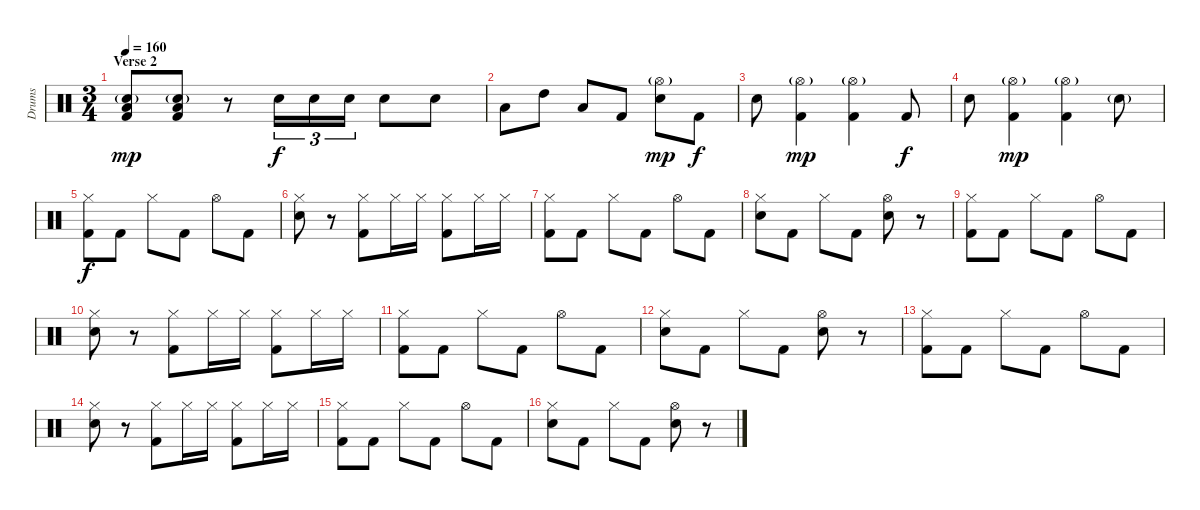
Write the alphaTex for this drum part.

\track ("Drums" "Drums") {instrument percussion}
\staff {score}
\articulation defaults
\ts (3 4)
\section ("" "Verse 2")
\tempo 160
\clef neutral
\ks c
("Low Floor Tom (hit)" "Snare (hit) 2"{g} "Kick (hit) 2").8{dy mp} ("Low Floor Tom (hit)" "Snare (hit) 2"{g} "Kick (hit) 2").8 r.8 "Snare (hit) 2".16{tu (3 2) dy f} "Snare (hit) 2".16{tu (3 2)} "Snare (hit) 2".16{tu (3 2)} "Snare (hit) 2".8 "Snare (hit) 2".8 |
"Low Tom (hit)".8 "High Tom (hit)".8 "Low Floor Tom (hit)".8 "Kick (hit) 2".8 ("Hi-Hat (open)"{g} "Snare (hit) 2").8{dy mp} "Kick (hit) 2".8{dy f} |
"Snare (hit) 2".8 ("Hi-Hat (open)"{g} "Kick (hit) 2").4{dy mp} ("Hi-Hat (open)"{g} "Kick (hit) 2").4 "Kick (hit) 2".8{dy f} |
"Snare (hit) 2".8 ("Hi-Hat (open)"{g} "Kick (hit) 2").4{dy mp} ("Hi-Hat (open)"{g} "Kick (hit) 2").4 "Snare (hit) 2"{g}.8 |
("Hi-Hat (closed)" "Kick (hit) 2").8{dy f} "Kick (hit) 2".8 "Hi-Hat (closed)".8 "Kick (hit) 2".8 "Hi-Hat (open)".8 "Kick (hit) 2".8 |
("Hi-Hat (closed)" "Snare (hit) 2").8 r.8 ("Hi-Hat (closed)" "Kick (hit) 2").8 "Hi-Hat (closed)".16 "Hi-Hat (closed)".16 ("Hi-Hat (closed)" "Kick (hit) 2").8 "Hi-Hat (closed)".16 "Hi-Hat (closed)".16 |
("Hi-Hat (closed)" "Kick (hit) 2").8 "Kick (hit) 2".8 "Hi-Hat (closed)".8 "Kick (hit) 2".8 "Hi-Hat (open)".8 "Kick (hit) 2".8 |
("Hi-Hat (closed)" "Snare (hit) 2").8 "Kick (hit) 2".8 "Hi-Hat (closed)".8 "Kick (hit) 2".8 ("Hi-Hat (open)" "Snare (hit) 2").8 r.8 |
("Hi-Hat (closed)" "Kick (hit) 2").8 "Kick (hit) 2".8 "Hi-Hat (closed)".8 "Kick (hit) 2".8 "Hi-Hat (open)".8 "Kick (hit) 2".8 |
("Hi-Hat (closed)" "Snare (hit) 2").8 r.8 ("Hi-Hat (closed)" "Kick (hit) 2").8 "Hi-Hat (closed)".16 "Hi-Hat (closed)".16 ("Hi-Hat (closed)" "Kick (hit) 2").8 "Hi-Hat (closed)".16 "Hi-Hat (closed)".16 |
("Hi-Hat (closed)" "Kick (hit) 2").8 "Kick (hit) 2".8 "Hi-Hat (closed)".8 "Kick (hit) 2".8 "Hi-Hat (open)".8 "Kick (hit) 2".8 |
("Hi-Hat (closed)" "Snare (hit) 2").8 "Kick (hit) 2".8 "Hi-Hat (closed)".8 "Kick (hit) 2".8 ("Hi-Hat (open)" "Snare (hit) 2").8 r.8 |
("Hi-Hat (closed)" "Kick (hit) 2").8 "Kick (hit) 2".8 "Hi-Hat (closed)".8 "Kick (hit) 2".8 "Hi-Hat (open)".8 "Kick (hit) 2".8 |
("Hi-Hat (closed)" "Snare (hit) 2").8 r.8 ("Hi-Hat (closed)" "Kick (hit) 2").8 "Hi-Hat (closed)".16 "Hi-Hat (closed)".16 ("Hi-Hat (closed)" "Kick (hit) 2").8 "Hi-Hat (closed)".16 "Hi-Hat (closed)".16 |
("Hi-Hat (closed)" "Kick (hit) 2").8 "Kick (hit) 2".8 "Hi-Hat (closed)".8 "Kick (hit) 2".8 "Hi-Hat (open)".8 "Kick (hit) 2".8 |
("Hi-Hat (closed)" "Snare (hit) 2").8 "Kick (hit) 2".8 "Hi-Hat (closed)".8 "Kick (hit) 2".8 ("Hi-Hat (open)" "Snare (hit) 2").8 r.8
